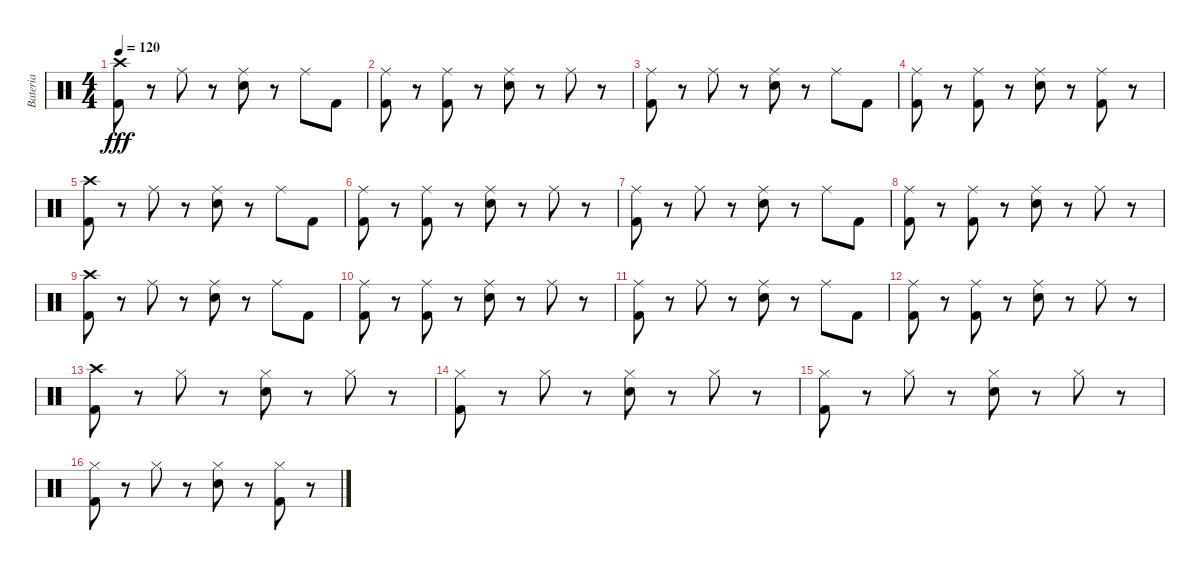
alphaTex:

\track ("Bateria" "Bateria") {instrument percussion}
\staff {score}
\articulation defaults
\ts (4 4)
\tempo 120
\clef neutral
\ks c
("Crash high (hit)" "Kick (hit) 2").8{dy fff} r.8 "Ride (middle)".8 r.8 ("Ride (middle)" "Electric Snare (hit)").8 r.8 "Ride (middle)".8 "Kick (hit) 2".8 |
("Ride (middle)" "Kick (hit) 2").8 r.8 ("Ride (middle)" "Kick (hit) 2").8 r.8 ("Ride (middle)" "Electric Snare (hit)").8 r.8 "Ride (middle)".8 r.8 |
("Ride (middle)" "Kick (hit) 2").8 r.8 "Ride (middle)".8 r.8 ("Ride (middle)" "Electric Snare (hit)").8 r.8 "Ride (middle)".8 "Kick (hit) 2".8 |
("Ride (middle)" "Kick (hit) 2").8 r.8 ("Ride (middle)" "Kick (hit) 2").8 r.8 ("Ride (middle)" "Electric Snare (hit)").8 r.8 ("Ride (middle)" "Kick (hit) 2").8 r.8 |
("Crash high (hit)" "Kick (hit) 2").8 r.8 "Ride (middle)".8 r.8 ("Ride (middle)" "Electric Snare (hit)").8 r.8 "Ride (middle)".8 "Kick (hit) 2".8 |
("Ride (middle)" "Kick (hit) 2").8 r.8 ("Ride (middle)" "Kick (hit) 2").8 r.8 ("Ride (middle)" "Electric Snare (hit)").8 r.8 "Ride (middle)".8 r.8 |
("Ride (middle)" "Kick (hit) 2").8 r.8 "Ride (middle)".8 r.8 ("Ride (middle)" "Electric Snare (hit)").8 r.8 "Ride (middle)".8 "Kick (hit) 2".8 |
("Ride (middle)" "Kick (hit) 2").8 r.8 ("Ride (middle)" "Kick (hit) 2").8 r.8 ("Ride (middle)" "Electric Snare (hit)").8 r.8 "Ride (middle)".8 r.8 |
("Crash high (hit)" "Kick (hit) 2").8 r.8 "Ride (middle)".8 r.8 ("Ride (middle)" "Electric Snare (hit)").8 r.8 "Ride (middle)".8 "Kick (hit) 2".8 |
("Ride (middle)" "Kick (hit) 2").8 r.8 ("Ride (middle)" "Kick (hit) 2").8 r.8 ("Ride (middle)" "Electric Snare (hit)").8 r.8 "Ride (middle)".8 r.8 |
("Ride (middle)" "Kick (hit) 2").8 r.8 "Ride (middle)".8 r.8 ("Ride (middle)" "Electric Snare (hit)").8 r.8 "Ride (middle)".8 "Kick (hit) 2".8 |
("Ride (middle)" "Kick (hit) 2").8 r.8 ("Ride (middle)" "Kick (hit) 2").8 r.8 ("Ride (middle)" "Electric Snare (hit)").8 r.8 "Ride (middle)".8 r.8 |
("Crash high (hit)" "Kick (hit) 2").8 r.8 "Hi-Hat (closed)".8 r.8 ("Hi-Hat (closed)" "Electric Snare (hit)").8 r.8 "Hi-Hat (closed)".8 r.8 |
("Hi-Hat (closed)" "Kick (hit) 2").8 r.8 "Hi-Hat (closed)".8 r.8 ("Hi-Hat (closed)" "Electric Snare (hit)").8 r.8 "Hi-Hat (closed)".8 r.8 |
("Hi-Hat (closed)" "Kick (hit) 2").8 r.8 "Hi-Hat (closed)".8 r.8 ("Hi-Hat (closed)" "Electric Snare (hit)").8 r.8 "Hi-Hat (closed)".8 r.8 |
("Hi-Hat (closed)" "Kick (hit) 2").8 r.8 "Hi-Hat (closed)".8 r.8 ("Hi-Hat (closed)" "Electric Snare (hit)").8 r.8 ("Hi-Hat (closed)" "Kick (hit) 2").8 r.8
